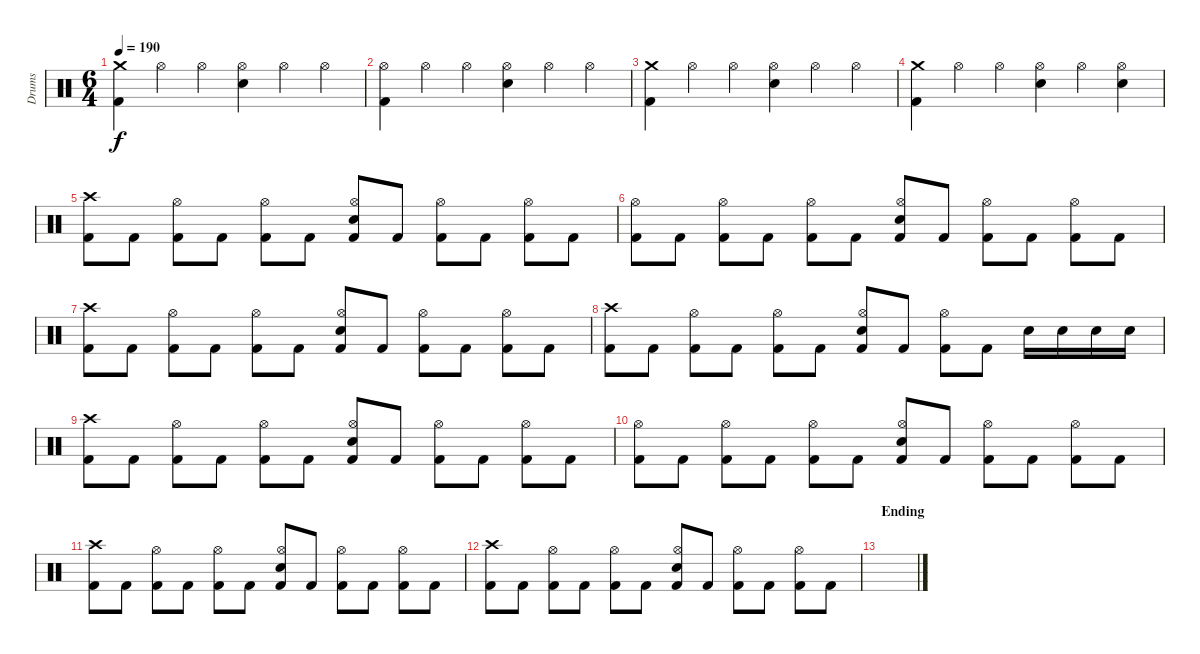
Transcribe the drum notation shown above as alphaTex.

\track ("Drums" "Drums") {instrument percussion}
\staff {score}
\articulation defaults
\ts (6 4)
\tempo 190
\clef neutral
\ks c
("Crash medium (hit)" "Kick (hit) 2").4{dy f} "Hi-Hat (open)".4 "Hi-Hat (open)".4 ("Hi-Hat (open)" "Electric Snare (hit)").4 "Hi-Hat (open)".4 "Hi-Hat (open)".4 |
("Hi-Hat (open)" "Kick (hit) 2").4 "Hi-Hat (open)".4 "Hi-Hat (open)".4 ("Hi-Hat (open)" "Electric Snare (hit)").4 "Hi-Hat (open)".4 "Hi-Hat (open)".4 |
("Crash medium (hit)" "Kick (hit) 2").4 "Hi-Hat (open)".4 "Hi-Hat (open)".4 ("Hi-Hat (open)" "Electric Snare (hit)").4 "Hi-Hat (open)".4 "Hi-Hat (open)".4 |
("Crash medium (hit)" "Kick (hit) 2").4 "Hi-Hat (open)".4 "Hi-Hat (open)".4 ("Hi-Hat (open)" "Electric Snare (hit)").4 "Hi-Hat (open)".4 ("Hi-Hat (open)" "Electric Snare (hit)").4 |
("Crash high (hit)" "Kick (hit) 2").8 "Kick (hit) 2".8 ("Hi-Hat (open)" "Kick (hit) 2").8 "Kick (hit) 2".8 ("Hi-Hat (open)" "Kick (hit) 2").8 "Kick (hit) 2".8 ("Hi-Hat (open)" "Electric Snare (hit)" "Kick (hit) 2").8 "Kick (hit) 2".8 ("Hi-Hat (open)" "Kick (hit) 2").8 "Kick (hit) 2".8 ("Hi-Hat (open)" "Kick (hit) 2").8 "Kick (hit) 2".8 |
("Hi-Hat (open)" "Kick (hit) 2").8 "Kick (hit) 2".8 ("Hi-Hat (open)" "Kick (hit) 2").8 "Kick (hit) 2".8 ("Hi-Hat (open)" "Kick (hit) 2").8 "Kick (hit) 2".8 ("Hi-Hat (open)" "Electric Snare (hit)" "Kick (hit) 2").8 "Kick (hit) 2".8 ("Hi-Hat (open)" "Kick (hit) 2").8 "Kick (hit) 2".8 ("Hi-Hat (open)" "Kick (hit) 2").8 "Kick (hit) 2".8 |
("Crash high (hit)" "Kick (hit) 2").8 "Kick (hit) 2".8 ("Hi-Hat (open)" "Kick (hit) 2").8 "Kick (hit) 2".8 ("Hi-Hat (open)" "Kick (hit) 2").8 "Kick (hit) 2".8 ("Hi-Hat (open)" "Electric Snare (hit)" "Kick (hit) 2").8 "Kick (hit) 2".8 ("Hi-Hat (open)" "Kick (hit) 2").8 "Kick (hit) 2".8 ("Hi-Hat (open)" "Kick (hit) 2").8 "Kick (hit) 2".8 |
("Crash high (hit)" "Kick (hit) 2").8 "Kick (hit) 2".8 ("Hi-Hat (open)" "Kick (hit) 2").8 "Kick (hit) 2".8 ("Hi-Hat (open)" "Kick (hit) 2").8 "Kick (hit) 2".8 ("Hi-Hat (open)" "Electric Snare (hit)" "Kick (hit) 2").8 "Kick (hit) 2".8 ("Hi-Hat (open)" "Kick (hit) 2").8 "Kick (hit) 2".8 "Electric Snare (hit)".16 "Electric Snare (hit)".16 "Electric Snare (hit)".16 "Electric Snare (hit)".16 |
("Crash high (hit)" "Kick (hit) 2").8 "Kick (hit) 2".8 ("Hi-Hat (open)" "Kick (hit) 2").8 "Kick (hit) 2".8 ("Hi-Hat (open)" "Kick (hit) 2").8 "Kick (hit) 2".8 ("Hi-Hat (open)" "Electric Snare (hit)" "Kick (hit) 2").8 "Kick (hit) 2".8 ("Hi-Hat (open)" "Kick (hit) 2").8 "Kick (hit) 2".8 ("Hi-Hat (open)" "Kick (hit) 2").8 "Kick (hit) 2".8 |
("Hi-Hat (open)" "Kick (hit) 2").8 "Kick (hit) 2".8 ("Hi-Hat (open)" "Kick (hit) 2").8 "Kick (hit) 2".8 ("Hi-Hat (open)" "Kick (hit) 2").8 "Kick (hit) 2".8 ("Hi-Hat (open)" "Electric Snare (hit)" "Kick (hit) 2").8 "Kick (hit) 2".8 ("Hi-Hat (open)" "Kick (hit) 2").8 "Kick (hit) 2".8 ("Hi-Hat (open)" "Kick (hit) 2").8 "Kick (hit) 2".8 |
("Crash high (hit)" "Kick (hit) 2").8 "Kick (hit) 2".8 ("Hi-Hat (open)" "Kick (hit) 2").8 "Kick (hit) 2".8 ("Hi-Hat (open)" "Kick (hit) 2").8 "Kick (hit) 2".8 ("Hi-Hat (open)" "Electric Snare (hit)" "Kick (hit) 2").8 "Kick (hit) 2".8 ("Hi-Hat (open)" "Kick (hit) 2").8 "Kick (hit) 2".8 ("Hi-Hat (open)" "Kick (hit) 2").8 "Kick (hit) 2".8 |
("Crash high (hit)" "Kick (hit) 2").8 "Kick (hit) 2".8 ("Hi-Hat (open)" "Kick (hit) 2").8 "Kick (hit) 2".8 ("Hi-Hat (open)" "Kick (hit) 2").8 "Kick (hit) 2".8 ("Hi-Hat (open)" "Electric Snare (hit)" "Kick (hit) 2").8 "Kick (hit) 2".8 ("Hi-Hat (open)" "Kick (hit) 2").8 "Kick (hit) 2".8 ("Hi-Hat (open)" "Kick (hit) 2").8 "Kick (hit) 2".8 |
\section ("" "Ending")
